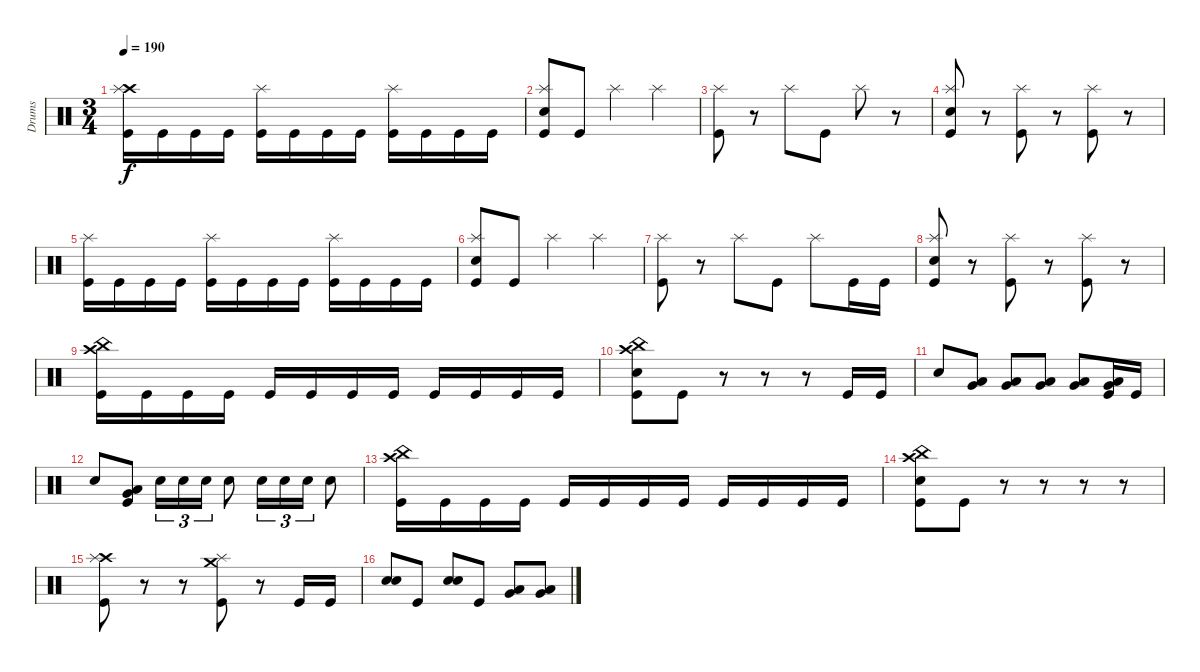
\track ("Drums" "Drums") {instrument percussion}
\staff {score}
\articulation defaults
\ts (3 4)
\tempo 190
\clef neutral
\ks c
("Kick (hit)" "Crash high (hit)" "Splash (hit)").16{dy f} "Kick (hit)".16 "Kick (hit)".16 "Kick (hit)".16 ("Kick (hit)" "Splash (hit)").16 "Kick (hit)".16 "Kick (hit)".16 "Kick (hit)".16 ("Kick (hit)" "Splash (hit)").16 "Kick (hit)".16 "Kick (hit)".16 "Kick (hit)".16 |
("Kick (hit)" "Splash (hit)" "Snare (hit) 2").8 "Kick (hit)".8 "Splash (hit)".4 "Splash (hit)".4 |
("Kick (hit)" "Splash (hit)").8 r.8 "Splash (hit)".8 "Kick (hit)".8 "Splash (hit)".8 r.8 |
("Kick (hit)" "Splash (hit)" "Snare (hit) 2").8 r.8 ("Kick (hit)" "Splash (hit)").8 r.8 ("Kick (hit)" "Splash (hit)").8 r.8 |
("Kick (hit)" "Splash (hit)").16 "Kick (hit)".16 "Kick (hit)".16 "Kick (hit)".16 ("Kick (hit)" "Splash (hit)").16 "Kick (hit)".16 "Kick (hit)".16 "Kick (hit)".16 ("Kick (hit)" "Splash (hit)").16 "Kick (hit)".16 "Kick (hit)".16 "Kick (hit)".16 |
("Kick (hit)" "Splash (hit)" "Snare (hit) 2").8 "Kick (hit)".8 "Splash (hit)".4 "Splash (hit)".4 |
("Kick (hit)" "Splash (hit)").8 r.8 "Splash (hit)".8 "Kick (hit)".8 "Splash (hit)".8 "Kick (hit)".16 "Kick (hit)".16 |
("Kick (hit)" "Splash (hit)" "Snare (hit) 2").8 r.8 ("Kick (hit)" "Splash (hit)").8 r.8 ("Kick (hit)" "Splash (hit)").8 r.8 |
("Kick (hit)" "China (hit)" "Crash high (hit)").16 "Kick (hit)".16 "Kick (hit)".16 "Kick (hit)".16 "Kick (hit)".16 "Kick (hit)".16 "Kick (hit)".16 "Kick (hit)".16 "Kick (hit)".16 "Kick (hit)".16 "Kick (hit)".16 "Kick (hit)".16 |
("Kick (hit)" "China (hit)" "Crash high (hit)" "Snare (hit) 2").8 "Kick (hit)".8 r.8 r.8 r.8 "Kick (hit)".16 "Kick (hit)".16 |
"Snare (hit) 2".8 ("Low Tom (hit)" "Very Low Tom (hit)").8 ("Low Tom (hit)" "Very Low Tom (hit)").8 ("Low Tom (hit)" "Very Low Tom (hit)").8 ("Very Low Tom (hit)" "Low Floor Tom (hit)").8 ("Very Low Tom (hit)" "Kick (hit)" "Low Floor Tom (hit)").16 "Kick (hit)".16 |
"Snare (hit) 2".8 ("Kick (hit)" "Low Floor Tom (hit)" "Very Low Tom (hit)").8 "Snare (hit) 2".16{tu (3 2)} "Snare (hit) 2".16{tu (3 2)} "Snare (hit) 2".16{tu (3 2)} "Snare (hit) 2".8 "Snare (hit) 2".16{tu (3 2)} "Snare (hit) 2".16{tu (3 2)} "Snare (hit) 2".16{tu (3 2)} "Snare (hit) 2".8 |
("Kick (hit)" "China (hit)" "Crash high (hit)").16 "Kick (hit)".16 "Kick (hit)".16 "Kick (hit)".16 "Kick (hit)".16 "Kick (hit)".16 "Kick (hit)".16 "Kick (hit)".16 "Kick (hit)".16 "Kick (hit)".16 "Kick (hit)".16 "Kick (hit)".16 |
("Kick (hit)" "China (hit)" "Crash high (hit)" "Snare (hit) 2").8 "Kick (hit)".8 r.8 r.8 r.8 r.8 |
("Kick (hit)" "Crash high (hit)" "Splash (hit)").8 r.8 r.8 ("Kick (hit)" "Crash medium (hit)" "Splash (hit)").8 r.8 "Kick (hit)".16 "Kick (hit)".16 |
("Snare (hit) 2" "Snare (hit) 2").8 "Kick (hit)".8 ("Snare (hit) 2" "Snare (hit) 2").8 "Kick (hit)".8 ("Very Low Tom (hit)" "Low Tom (hit)").8 ("Very Low Tom (hit)" "Low Floor Tom (hit)").8
